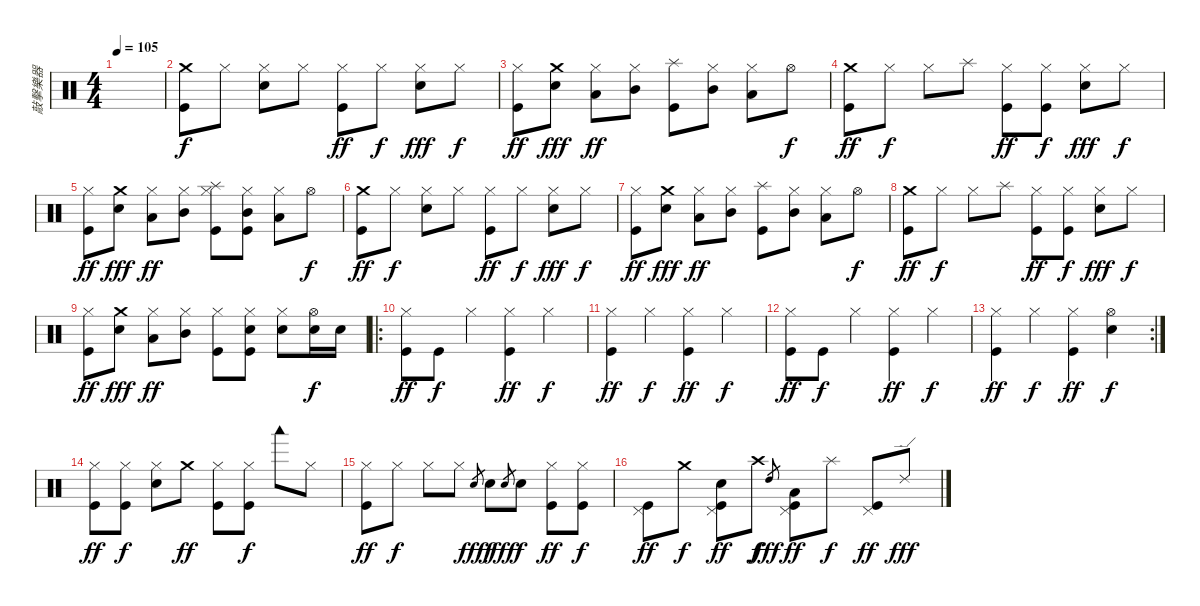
\track ("敲擊樂器" "敲擊樂器") {instrument percussion}
\staff {score}
\articulation defaults
\ts (4 4)
\tempo 105
\clef neutral
\ks c
|
("Crash medium (hit)" "Kick (hit)").8 "Hi-Hat (closed)".8{dy f} ("Hi-Hat (closed)" "Snare (hit) 2").8 "Hi-Hat (closed)".8 ("Hi-Hat (closed)" "Kick (hit)").8{dy ff} "Hi-Hat (closed)".8{dy f} ("Hi-Hat (closed)" "Snare (hit) 2").8{dy fff} "Hi-Hat (closed)".8{dy f} |
("Hi-Hat (closed)" "Kick (hit)").8{dy ff} ("Crash medium (hit)" "Snare (hit) 2").8{dy fff} ("Hi-Hat (closed)" "Low Tom (hit)").8{dy ff} ("Hi-Hat (closed)" "Mid Tom (hit)").8 ("Splash (hit)" "Kick (hit)").8 ("Hi-Hat (closed)" "Mid Tom (hit)").8 ("Hi-Hat (closed)" "Low Tom (hit)").8 "Hi-Hat (open)".8{dy f} |
("Crash medium (hit)" "Kick (hit)").8{dy ff} "Hi-Hat (closed)".8{dy f} "Hi-Hat (closed)".8 "Splash (hit)".8 ("Hi-Hat (closed)" "Kick (hit)").8{dy ff} ("Hi-Hat (closed)" "Kick (hit)").8{dy f} ("Hi-Hat (closed)" "Snare (hit) 2").8{dy fff} "Hi-Hat (closed)".8{dy f} |
("Hi-Hat (closed)" "Kick (hit)").8{dy ff} ("Crash medium (hit)" "Snare (hit) 2").8{dy fff} ("Hi-Hat (closed)" "Low Tom (hit)").8{dy ff} ("Hi-Hat (closed)" "Mid Tom (hit)").8 ("Hi-Hat (closed)" "Splash (hit)" "Kick (hit)").8 ("Hi-Hat (closed)" "Mid Tom (hit)" "Kick (hit)").8 ("Hi-Hat (closed)" "Low Tom (hit)").8 "Hi-Hat (open)".8{dy f} |
("Crash medium (hit)" "Kick (hit)").8{dy ff} "Hi-Hat (closed)".8{dy f} ("Hi-Hat (closed)" "Snare (hit) 2").8 "Hi-Hat (closed)".8 ("Hi-Hat (closed)" "Kick (hit)").8{dy ff} "Hi-Hat (closed)".8{dy f} ("Hi-Hat (closed)" "Snare (hit) 2").8{dy fff} "Hi-Hat (closed)".8{dy f} |
("Hi-Hat (closed)" "Kick (hit)").8{dy ff} ("Crash medium (hit)" "Snare (hit) 2").8{dy fff} ("Hi-Hat (closed)" "Low Tom (hit)").8{dy ff} ("Hi-Hat (closed)" "Mid Tom (hit)").8 ("Splash (hit)" "Kick (hit)").8 ("Hi-Hat (closed)" "Mid Tom (hit)").8 ("Hi-Hat (closed)" "Low Tom (hit)").8 "Hi-Hat (open)".8{dy f} |
("Crash medium (hit)" "Kick (hit)").8{dy ff} "Hi-Hat (closed)".8{dy f} "Hi-Hat (closed)".8 "Splash (hit)".8 ("Hi-Hat (closed)" "Kick (hit)").8{dy ff} ("Hi-Hat (closed)" "Kick (hit)").8{dy f} ("Hi-Hat (closed)" "Snare (hit) 2").8{dy fff} "Hi-Hat (closed)".8{dy f} |
("Hi-Hat (closed)" "Kick (hit)").8{dy ff} ("Crash medium (hit)" "Snare (hit) 2").8{dy fff} ("Hi-Hat (closed)" "Low Tom (hit)").8{dy ff} ("Hi-Hat (closed)" "Mid Tom (hit)").8 ("Hi-Hat (closed)" "Kick (hit)").8 ("Hi-Hat (closed)" "Snare (hit) 2" "Kick (hit)").8 ("Hi-Hat (closed)" "Snare (hit) 2").8 ("Hi-Hat (open)" "Snare (hit) 2").16{dy f} "Snare (hit) 2".16 |
\ro
("Hi-Hat (closed)" "Kick (hit)").8{dy ff} "Kick (hit)".8{dy f} "Hi-Hat (closed)".4 ("Hi-Hat (closed)" "Kick (hit)").4{dy ff} "Hi-Hat (closed)".4{dy f} |
("Hi-Hat (closed)" "Kick (hit)").4{dy ff} "Hi-Hat (closed)".4{dy f} ("Hi-Hat (closed)" "Kick (hit)").4{dy ff} "Hi-Hat (closed)".4{dy f} |
("Hi-Hat (closed)" "Kick (hit)").8{dy ff} "Kick (hit)".8{dy f} "Hi-Hat (closed)".4 ("Hi-Hat (closed)" "Kick (hit)").4{dy ff} "Hi-Hat (closed)".4{dy f} |
\rc 2
("Hi-Hat (closed)" "Kick (hit)").4{dy ff} "Hi-Hat (closed)".4{dy f} ("Hi-Hat (closed)" "Kick (hit)").4{dy ff} ("Hi-Hat (open)" "Snare (hit) 2").4{dy f} |
("Hi-Hat (closed)" "Kick (hit)").8{dy ff} ("Hi-Hat (closed)" "Kick (hit)").8{dy f} ("Hi-Hat (closed)" "Snare (hit) 2").8 "Crash medium (hit)".8{dy ff} ("Hi-Hat (closed)" "Kick (hit)").8 ("Hi-Hat (closed)" "Kick (hit)").8{dy f} "Woodblock low (hit)".8 "Hi-Hat (closed)".8 |
("Hi-Hat (closed)" "Kick (hit)").8{dy ff} "Hi-Hat (closed)".8{dy f} "Hi-Hat (closed)".8 "Hi-Hat (closed)".8 "Snare (hit) 2"{sl}.8{gr dy fff} "Snare (hit) 2".8{dy f} "Snare (hit) 2"{sl}.8{gr dy fff} "Snare (hit) 2".8{dy f} ("Hi-Hat (closed)" "Kick (hit)").8{dy ff} ("Hi-Hat (closed)" "Kick (hit)").8{dy f} |
("Pedal Hi-Hat (hit)" "Kick (hit)").8{dy ff} "Crash medium (hit)".8{dy f} ("Pedal Hi-Hat (hit)" "Snare (hit) 2" "Kick (hit)").8{dy ff} "Crash high (hit)".8{dy f} "High Tom (hit)"{sl}.8{gr dy fff} ("Pedal Hi-Hat (hit)" "Low Tom (hit)" "Kick (hit)").8{dy ff} "Splash (hit)".8{dy f} ("Pedal Hi-Hat (hit)" "Kick (hit)").8{dy ff} "Ride (edge) 2".8{dy fff}
